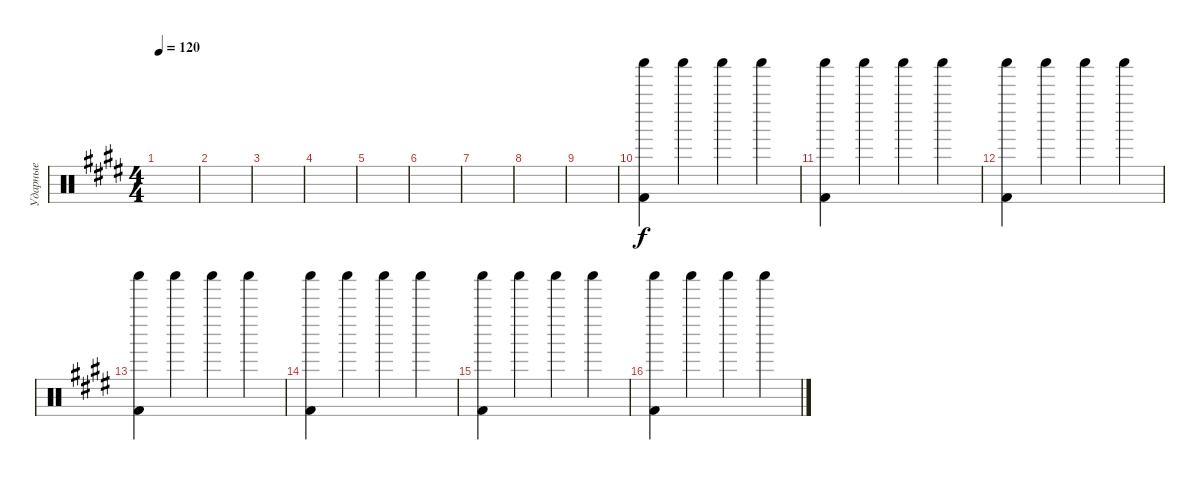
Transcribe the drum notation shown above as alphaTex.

\track ("Ударные" "Ударные") {instrument percussion}
\staff {score}
\articulation defaults
\ts (4 4)
\tempo 120
\clef neutral
\ks e
|
|
|
|
|
|
|
|
|
("Shaker (hit)" "Kick (hit) 2").4 "Shaker (hit)".4 "Shaker (hit)".4 "Shaker (hit)".4 |
("Shaker (hit)" "Kick (hit) 2").4 "Shaker (hit)".4 "Shaker (hit)".4 "Shaker (hit)".4 |
("Shaker (hit)" "Kick (hit) 2").4 "Shaker (hit)".4 "Shaker (hit)".4 "Shaker (hit)".4 |
("Shaker (hit)" "Kick (hit) 2").4 "Shaker (hit)".4 "Shaker (hit)".4 "Shaker (hit)".4 |
("Shaker (hit)" "Kick (hit) 2").4 "Shaker (hit)".4 "Shaker (hit)".4 "Shaker (hit)".4 |
("Shaker (hit)" "Kick (hit) 2").4 "Shaker (hit)".4 "Shaker (hit)".4 "Shaker (hit)".4 |
("Shaker (hit)" "Kick (hit) 2").4 "Shaker (hit)".4 "Shaker (hit)".4 "Shaker (hit)".4
